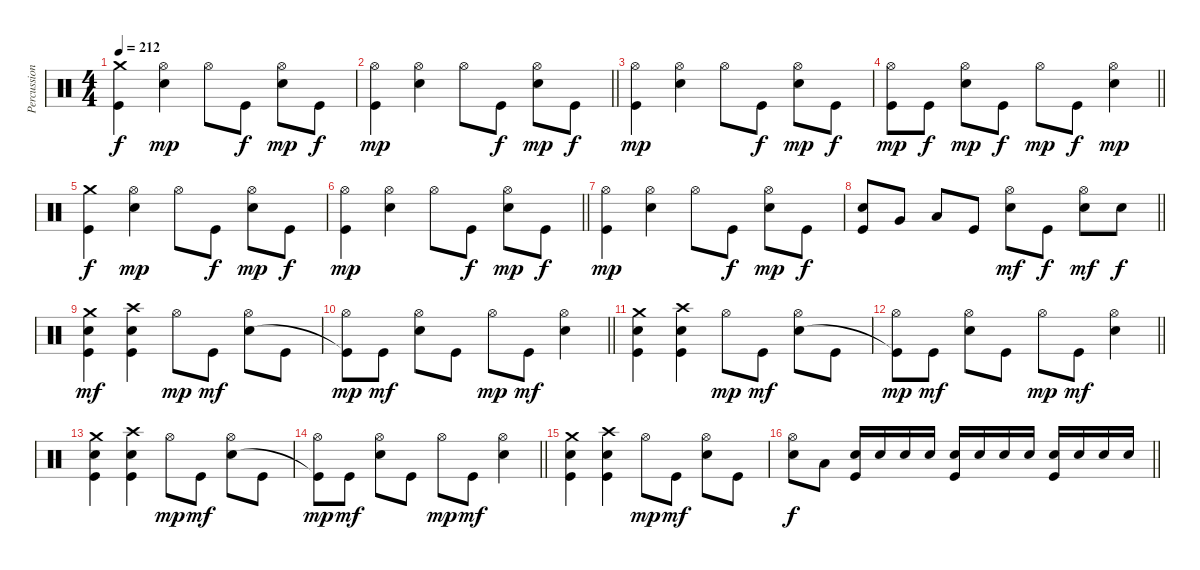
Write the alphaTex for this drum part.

\track ("Percussion" "Percussion") {instrument percussion}
\staff {score}
\articulation defaults
\ts (4 4)
\tempo 212
\clef neutral
\ks c
("Crash medium (hit)" "Kick (hit)").4{dy f} ("Hi-Hat (open)" "Snare (hit) 2").4{dy mp} "Hi-Hat (open)".8 "Kick (hit)".8{dy f} ("Hi-Hat (open)" "Snare (hit) 2").8{dy mp} "Kick (hit)".8{dy f} |
\barLineRight lightlight
("Hi-Hat (open)" "Kick (hit)").4{dy mp} ("Hi-Hat (open)" "Snare (hit) 2").4 "Hi-Hat (open)".8 "Kick (hit)".8{dy f} ("Hi-Hat (open)" "Snare (hit) 2").8{dy mp} "Kick (hit)".8{dy f} |
("Hi-Hat (open)" "Kick (hit)").4{dy mp} ("Hi-Hat (open)" "Snare (hit) 2").4 "Hi-Hat (open)".8 "Kick (hit)".8{dy f} ("Hi-Hat (open)" "Snare (hit) 2").8{dy mp} "Kick (hit)".8{dy f} |
\barLineRight lightlight
("Hi-Hat (open)" "Kick (hit)").8{dy mp} "Kick (hit)".8{dy f} ("Hi-Hat (open)" "Snare (hit) 2").8{dy mp} "Kick (hit)".8{dy f} "Hi-Hat (open)".8{dy mp} "Kick (hit)".8{dy f} ("Hi-Hat (open)" "Snare (hit) 2").4{dy mp} |
("Crash medium (hit)" "Kick (hit)").4{dy f} ("Hi-Hat (open)" "Snare (hit) 2").4{dy mp} "Hi-Hat (open)".8 "Kick (hit)".8{dy f} ("Hi-Hat (open)" "Snare (hit) 2").8{dy mp} "Kick (hit)".8{dy f} |
\barLineRight lightlight
("Hi-Hat (open)" "Kick (hit)").4{dy mp} ("Hi-Hat (open)" "Snare (hit) 2").4 "Hi-Hat (open)".8 "Kick (hit)".8{dy f} ("Hi-Hat (open)" "Snare (hit) 2").8{dy mp} "Kick (hit)".8{dy f} |
("Hi-Hat (open)" "Kick (hit)").4{dy mp} ("Hi-Hat (open)" "Snare (hit) 2").4 "Hi-Hat (open)".8 "Kick (hit)".8{dy f} ("Hi-Hat (open)" "Snare (hit) 2").8{dy mp} "Kick (hit)".8{dy f} |
\barLineRight lightlight
("Snare (hit) 2" "Kick (hit)").8 "Very Low Tom (hit)".8 "Low Floor Tom (hit)".8 "Kick (hit)".8 ("Hi-Hat (open)" "Snare (hit) 2").8{dy mf} "Kick (hit)".8{dy f} ("Hi-Hat (open)" "Snare (hit) 2").8{dy mf} "Snare (hit) 2".8{dy f} |
("Crash medium (hit)" "Snare (hit) 2" "Kick (hit)").4{dy mf} ("Crash high (hit)" "Snare (hit) 2" "Kick (hit)").4 "Hi-Hat (open)".8{dy mp} "Kick (hit)".8{dy mf} ("Hi-Hat (open)" "Snare (hit) 2").8 "Kick (hit)".8 |
\barLineRight lightlight
("Hi-Hat (open)" "Kick (hit)"{t}).8{dy mp} "Kick (hit)".8{dy mf} ("Hi-Hat (open)" "Snare (hit) 2").8 "Kick (hit)".8 "Hi-Hat (open)".8{dy mp} "Kick (hit)".8{dy mf} ("Hi-Hat (open)" "Snare (hit) 2").4 |
("Crash medium (hit)" "Snare (hit) 2" "Kick (hit)").4 ("Crash high (hit)" "Snare (hit) 2" "Kick (hit)").4 "Hi-Hat (open)".8{dy mp} "Kick (hit)".8{dy mf} ("Hi-Hat (open)" "Snare (hit) 2").8 "Kick (hit)".8 |
\barLineRight lightlight
("Hi-Hat (open)" "Kick (hit)"{t}).8{dy mp} "Kick (hit)".8{dy mf} ("Hi-Hat (open)" "Snare (hit) 2").8 "Kick (hit)".8 "Hi-Hat (open)".8{dy mp} "Kick (hit)".8{dy mf} ("Hi-Hat (open)" "Snare (hit) 2").4 |
("Crash medium (hit)" "Snare (hit) 2" "Kick (hit)").4 ("Crash high (hit)" "Snare (hit) 2" "Kick (hit)").4 "Hi-Hat (open)".8{dy mp} "Kick (hit)".8{dy mf} ("Hi-Hat (open)" "Snare (hit) 2").8 "Kick (hit)".8 |
\barLineRight lightlight
("Hi-Hat (open)" "Kick (hit)"{t}).8{dy mp} "Kick (hit)".8{dy mf} ("Hi-Hat (open)" "Snare (hit) 2").8 "Kick (hit)".8 "Hi-Hat (open)".8{dy mp} "Kick (hit)".8{dy mf} ("Hi-Hat (open)" "Snare (hit) 2").4 |
("Crash medium (hit)" "Snare (hit) 2" "Kick (hit)").4 ("Crash high (hit)" "Snare (hit) 2" "Kick (hit)").4 "Hi-Hat (open)".8{dy mp} "Kick (hit)".8{dy mf} ("Hi-Hat (open)" "Snare (hit) 2").8 "Kick (hit)".8 |
\barLineRight lightlight
("Hi-Hat (open)" "Snare (hit) 2").8{dy f} "Low Floor Tom (hit)".8 ("Snare (hit) 2" "Kick (hit)").16 "Snare (hit) 2".16 "Snare (hit) 2".16 "Snare (hit) 2".16 ("Snare (hit) 2" "Kick (hit)").16 "Snare (hit) 2".16 "Snare (hit) 2".16 "Snare (hit) 2".16 ("Snare (hit) 2" "Kick (hit)").16 "Snare (hit) 2".16 "Snare (hit) 2".16 "Snare (hit) 2".16
